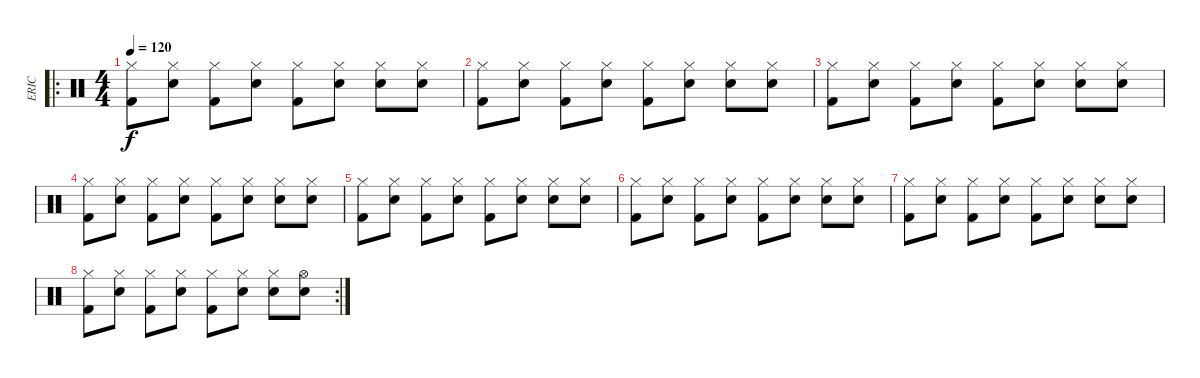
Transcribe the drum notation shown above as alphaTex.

\track ("ERIC" "ERIC") {instrument percussion}
\staff {score}
\articulation defaults
\ro
\ts (4 4)
\tempo 120
\tempo 75
\tempo 120
\clef neutral
\ks c
("Hi-Hat (closed)" "Kick (hit) 2").8{dy f} ("Hi-Hat (closed)" "Electric Snare (hit)").8 ("Hi-Hat (closed)" "Kick (hit) 2").8 ("Hi-Hat (closed)" "Electric Snare (hit)").8 ("Hi-Hat (closed)" "Kick (hit) 2").8 ("Hi-Hat (closed)" "Electric Snare (hit)").8 ("Hi-Hat (closed)" "Electric Snare (hit)").8 ("Hi-Hat (closed)" "Electric Snare (hit)").8 |
("Hi-Hat (closed)" "Kick (hit) 2").8 ("Hi-Hat (closed)" "Electric Snare (hit)").8 ("Hi-Hat (closed)" "Kick (hit) 2").8 ("Hi-Hat (closed)" "Electric Snare (hit)").8 ("Hi-Hat (closed)" "Kick (hit) 2").8 ("Hi-Hat (closed)" "Electric Snare (hit)").8 ("Hi-Hat (closed)" "Electric Snare (hit)").8 ("Hi-Hat (closed)" "Electric Snare (hit)").8 |
("Hi-Hat (closed)" "Kick (hit) 2").8 ("Hi-Hat (closed)" "Electric Snare (hit)").8 ("Hi-Hat (closed)" "Kick (hit) 2").8 ("Hi-Hat (closed)" "Electric Snare (hit)").8 ("Hi-Hat (closed)" "Kick (hit) 2").8 ("Hi-Hat (closed)" "Electric Snare (hit)").8 ("Hi-Hat (closed)" "Electric Snare (hit)").8 ("Hi-Hat (closed)" "Electric Snare (hit)").8 |
("Hi-Hat (closed)" "Kick (hit) 2").8 ("Hi-Hat (closed)" "Electric Snare (hit)").8 ("Hi-Hat (closed)" "Kick (hit) 2").8 ("Hi-Hat (closed)" "Electric Snare (hit)").8 ("Hi-Hat (closed)" "Kick (hit) 2").8 ("Hi-Hat (closed)" "Electric Snare (hit)").8 ("Hi-Hat (closed)" "Electric Snare (hit)").8 ("Hi-Hat (closed)" "Electric Snare (hit)").8 |
("Hi-Hat (closed)" "Kick (hit) 2").8 ("Hi-Hat (closed)" "Electric Snare (hit)").8 ("Hi-Hat (closed)" "Kick (hit) 2").8 ("Hi-Hat (closed)" "Electric Snare (hit)").8 ("Hi-Hat (closed)" "Kick (hit) 2").8 ("Hi-Hat (closed)" "Electric Snare (hit)").8 ("Hi-Hat (closed)" "Electric Snare (hit)").8 ("Hi-Hat (closed)" "Electric Snare (hit)").8 |
("Hi-Hat (closed)" "Kick (hit) 2").8 ("Hi-Hat (closed)" "Electric Snare (hit)").8 ("Hi-Hat (closed)" "Kick (hit) 2").8 ("Hi-Hat (closed)" "Electric Snare (hit)").8 ("Hi-Hat (closed)" "Kick (hit) 2").8 ("Hi-Hat (closed)" "Electric Snare (hit)").8 ("Hi-Hat (closed)" "Electric Snare (hit)").8 ("Hi-Hat (closed)" "Electric Snare (hit)").8 |
("Hi-Hat (closed)" "Kick (hit) 2").8 ("Hi-Hat (closed)" "Electric Snare (hit)").8 ("Hi-Hat (closed)" "Kick (hit) 2").8 ("Hi-Hat (closed)" "Electric Snare (hit)").8 ("Hi-Hat (closed)" "Kick (hit) 2").8 ("Hi-Hat (closed)" "Electric Snare (hit)").8 ("Hi-Hat (closed)" "Electric Snare (hit)").8 ("Hi-Hat (closed)" "Electric Snare (hit)").8 |
\rc 2
("Hi-Hat (closed)" "Kick (hit) 2").8 ("Hi-Hat (closed)" "Electric Snare (hit)").8 ("Hi-Hat (closed)" "Kick (hit) 2").8 ("Hi-Hat (closed)" "Electric Snare (hit)").8 ("Hi-Hat (closed)" "Kick (hit) 2").8 ("Hi-Hat (closed)" "Electric Snare (hit)").8 ("Hi-Hat (closed)" "Electric Snare (hit)").8 ("Hi-Hat (open)" "Electric Snare (hit)").8
